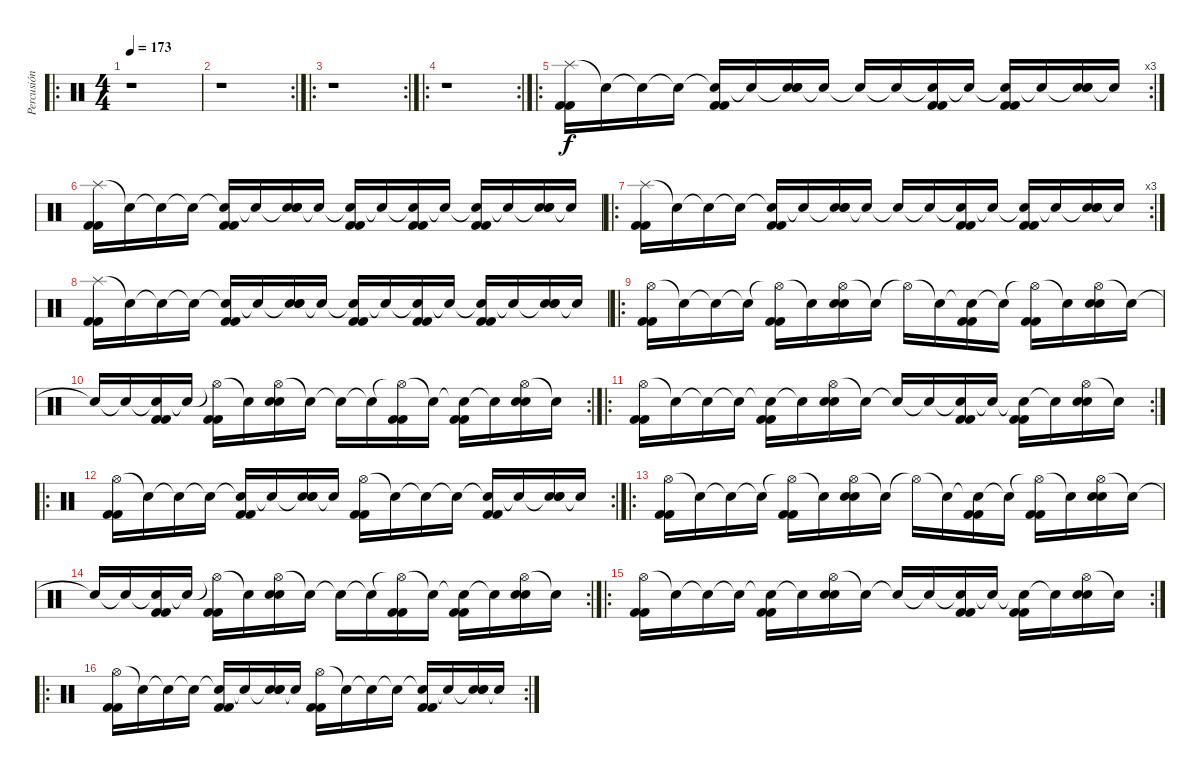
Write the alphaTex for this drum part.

\track ("Percusión" "Percusión") {instrument percussion}
\staff {score}
\articulation defaults
\ro
\ts (4 4)
\tempo 173
\clef neutral
\ks c
r.1{dy f} |
\rc 2
r.1 |
\ro
\rc 2
r.1 |
\ro
\rc 2
r.1 |
\ro
\rc 3
("Splash (hit)" "Kick (hit) 2" "Kick (hit) 2").16 "Snare (hit)"{t}.16 "Snare (hit)"{t}.16 "Snare (hit)"{t}.16 ("Snare (hit)"{t} "Kick (hit) 2" "Kick (hit) 2").16 "Snare (hit)"{t}.16 ("Snare (hit)"{t} "Electric Snare (hit)" "Electric Snare (hit)").16 "Snare (hit)"{t}.16 "Snare (hit)"{t}.16 "Snare (hit)"{t}.16 ("Snare (hit)"{t} "Kick (hit) 2" "Kick (hit) 2").16 "Snare (hit)"{t}.16 ("Snare (hit)"{t} "Kick (hit) 2" "Kick (hit) 2").16 "Snare (hit)"{t}.16 ("Snare (hit)"{t} "Electric Snare (hit)" "Electric Snare (hit)").16 "Snare (hit)"{t}.16 |
("Splash (hit)" "Kick (hit) 2" "Kick (hit) 2").16 "Snare (hit)"{t}.16 "Snare (hit)"{t}.16 "Snare (hit)"{t}.16 ("Snare (hit)"{t} "Kick (hit) 2" "Kick (hit) 2").16 "Snare (hit)"{t}.16 ("Snare (hit)"{t} "Electric Snare (hit)" "Electric Snare (hit)").16 "Snare (hit)"{t}.16 ("Snare (hit)"{t} "Kick (hit) 2" "Kick (hit) 2").16 "Snare (hit)"{t}.16 ("Snare (hit)"{t} "Kick (hit) 2" "Kick (hit) 2").16 "Snare (hit)"{t}.16 ("Snare (hit)"{t} "Kick (hit) 2" "Kick (hit) 2").16 "Snare (hit)"{t}.16 ("Snare (hit)"{t} "Electric Snare (hit)" "Electric Snare (hit)").16 "Snare (hit)"{t}.16 |
\ro
\rc 3
("Splash (hit)" "Kick (hit) 2" "Kick (hit) 2").16 "Snare (hit)"{t}.16 "Snare (hit)"{t}.16 "Snare (hit)"{t}.16 ("Snare (hit)"{t} "Kick (hit) 2" "Kick (hit) 2").16 "Snare (hit)"{t}.16 ("Snare (hit)"{t} "Electric Snare (hit)" "Electric Snare (hit)").16 "Snare (hit)"{t}.16 "Snare (hit)"{t}.16 "Snare (hit)"{t}.16 ("Snare (hit)"{t} "Kick (hit) 2" "Kick (hit) 2").16 "Snare (hit)"{t}.16 ("Snare (hit)"{t} "Kick (hit) 2" "Kick (hit) 2").16 "Snare (hit)"{t}.16 ("Snare (hit)"{t} "Electric Snare (hit)" "Electric Snare (hit)").16 "Snare (hit)"{t}.16 |
("Splash (hit)" "Kick (hit) 2" "Kick (hit) 2").16 "Snare (hit)"{t}.16 "Snare (hit)"{t}.16 "Snare (hit)"{t}.16 ("Snare (hit)"{t} "Kick (hit) 2" "Kick (hit) 2").16 "Snare (hit)"{t}.16 ("Snare (hit)"{t} "Electric Snare (hit)" "Electric Snare (hit)").16 "Snare (hit)"{t}.16 ("Snare (hit)"{t} "Kick (hit) 2" "Kick (hit) 2").16 "Snare (hit)"{t}.16 ("Snare (hit)"{t} "Kick (hit) 2" "Kick (hit) 2").16 "Snare (hit)"{t}.16 ("Snare (hit)"{t} "Kick (hit) 2" "Kick (hit) 2").16 "Snare (hit)"{t}.16 ("Snare (hit)"{t} "Electric Snare (hit)" "Electric Snare (hit)").16 "Snare (hit)"{t}.16 |
\ro
("Hi-Hat (open)" "Kick (hit) 2" "Kick (hit) 2").16 "Snare (hit)"{t}.16 "Snare (hit)"{t}.16 "Snare (hit)"{t}.16 ("Hi-Hat (open)"{t} "Kick (hit) 2" "Kick (hit) 2").16 "Snare (hit)"{t}.16 ("Hi-Hat (open)" "Electric Snare (hit)" "Electric Snare (hit)").16 "Snare (hit)"{t}.16 "Hi-Hat (open)"{t}.16 "Snare (hit)"{t}.16 ("Snare (hit)"{t} "Kick (hit) 2" "Kick (hit) 2").16 "Snare (hit)"{t}.16 ("Hi-Hat (open)"{t} "Kick (hit) 2" "Kick (hit) 2").16 "Snare (hit)"{t}.16 ("Hi-Hat (open)" "Electric Snare (hit)" "Electric Snare (hit)").16 "Snare (hit)"{t}.16 |
\rc 2 "Snare (hit)"{t}.16 "Snare (hit)"{t}.16
("Snare (hit)"{t} "Kick (hit) 2" "Kick (hit) 2").16 "Snare (hit)"{t}.16 ("Hi-Hat (open)"{t} "Kick (hit) 2" "Kick (hit) 2").16 "Snare (hit)"{t}.16 ("Hi-Hat (open)" "Electric Snare (hit)" "Electric Snare (hit)").16 "Snare (hit)"{t}.16 "Snare (hit)"{t}.16 "Snare (hit)"{t}.16 ("Hi-Hat (open)"{t} "Kick (hit) 2" "Kick (hit) 2").16 "Snare (hit)"{t}.16 ("Snare (hit)"{t} "Kick (hit) 2" "Kick (hit) 2").16 "Snare (hit)"{t}.16 ("Hi-Hat (open)" "Electric Snare (hit)" "Electric Snare (hit)").16 "Snare (hit)"{t}.16 |
\ro
\rc 2
("Hi-Hat (open)" "Kick (hit) 2" "Kick (hit) 2").16 "Snare (hit)"{t}.16 "Snare (hit)"{t}.16 "Snare (hit)"{t}.16 ("Snare (hit)"{t} "Kick (hit) 2" "Kick (hit) 2").16 "Snare (hit)"{t}.16 ("Hi-Hat (open)" "Electric Snare (hit)" "Electric Snare (hit)").16 "Snare (hit)"{t}.16 "Snare (hit)"{t}.16 "Snare (hit)"{t}.16 ("Snare (hit)"{t} "Kick (hit) 2" "Kick (hit) 2").16 "Snare (hit)"{t}.16 ("Snare (hit)"{t} "Kick (hit) 2" "Kick (hit) 2").16 "Snare (hit)"{t}.16 ("Hi-Hat (open)" "Electric Snare (hit)" "Electric Snare (hit)").16 "Snare (hit)"{t}.16 |
\ro
\rc 2
("Hi-Hat (open)" "Kick (hit) 2" "Kick (hit) 2").16 "Snare (hit)"{t}.16 "Snare (hit)"{t}.16 "Snare (hit)"{t}.16 ("Snare (hit)"{t} "Kick (hit) 2" "Kick (hit) 2").16 "Snare (hit)"{t}.16 ("Snare (hit)"{t} "Electric Snare (hit)" "Electric Snare (hit)").16 "Snare (hit)"{t}.16 ("Hi-Hat (open)" "Kick (hit) 2" "Kick (hit) 2").16 "Snare (hit)"{t}.16 "Snare (hit)"{t}.16 "Snare (hit)"{t}.16 ("Snare (hit)"{t} "Kick (hit) 2" "Kick (hit) 2").16 "Snare (hit)"{t}.16 ("Snare (hit)"{t} "Electric Snare (hit)" "Electric Snare (hit)").16 "Snare (hit)"{t}.16 |
\ro
("Hi-Hat (open)" "Kick (hit) 2" "Kick (hit) 2").16 "Snare (hit)"{t}.16 "Snare (hit)"{t}.16 "Snare (hit)"{t}.16 ("Hi-Hat (open)"{t} "Kick (hit) 2" "Kick (hit) 2").16 "Snare (hit)"{t}.16 ("Hi-Hat (open)" "Electric Snare (hit)" "Electric Snare (hit)").16 "Snare (hit)"{t}.16 "Hi-Hat (open)"{t}.16 "Snare (hit)"{t}.16 ("Snare (hit)"{t} "Kick (hit) 2" "Kick (hit) 2").16 "Snare (hit)"{t}.16 ("Hi-Hat (open)"{t} "Kick (hit) 2" "Kick (hit) 2").16 "Snare (hit)"{t}.16 ("Hi-Hat (open)" "Electric Snare (hit)" "Electric Snare (hit)").16 "Snare (hit)"{t}.16 |
\rc 2 "Snare (hit)"{t}.16 "Snare (hit)"{t}.16
("Snare (hit)"{t} "Kick (hit) 2" "Kick (hit) 2").16 "Snare (hit)"{t}.16 ("Hi-Hat (open)"{t} "Kick (hit) 2" "Kick (hit) 2").16 "Snare (hit)"{t}.16 ("Hi-Hat (open)" "Electric Snare (hit)" "Electric Snare (hit)").16 "Snare (hit)"{t}.16 "Snare (hit)"{t}.16 "Snare (hit)"{t}.16 ("Hi-Hat (open)"{t} "Kick (hit) 2" "Kick (hit) 2").16 "Snare (hit)"{t}.16 ("Snare (hit)"{t} "Kick (hit) 2" "Kick (hit) 2").16 "Snare (hit)"{t}.16 ("Hi-Hat (open)" "Electric Snare (hit)" "Electric Snare (hit)").16 "Snare (hit)"{t}.16 |
\ro
\rc 2
("Hi-Hat (open)" "Kick (hit) 2" "Kick (hit) 2").16 "Snare (hit)"{t}.16 "Snare (hit)"{t}.16 "Snare (hit)"{t}.16 ("Snare (hit)"{t} "Kick (hit) 2" "Kick (hit) 2").16 "Snare (hit)"{t}.16 ("Hi-Hat (open)" "Electric Snare (hit)" "Electric Snare (hit)").16 "Snare (hit)"{t}.16 "Snare (hit)"{t}.16 "Snare (hit)"{t}.16 ("Snare (hit)"{t} "Kick (hit) 2" "Kick (hit) 2").16 "Snare (hit)"{t}.16 ("Snare (hit)"{t} "Kick (hit) 2" "Kick (hit) 2").16 "Snare (hit)"{t}.16 ("Hi-Hat (open)" "Electric Snare (hit)" "Electric Snare (hit)").16 "Snare (hit)"{t}.16 |
\ro
\rc 2
("Hi-Hat (open)" "Kick (hit) 2" "Kick (hit) 2").16 "Snare (hit)"{t}.16 "Snare (hit)"{t}.16 "Snare (hit)"{t}.16 ("Snare (hit)"{t} "Kick (hit) 2" "Kick (hit) 2").16 "Snare (hit)"{t}.16 ("Snare (hit)"{t} "Electric Snare (hit)" "Electric Snare (hit)").16 "Snare (hit)"{t}.16 ("Hi-Hat (open)" "Kick (hit) 2" "Kick (hit) 2").16 "Snare (hit)"{t}.16 "Snare (hit)"{t}.16 "Snare (hit)"{t}.16 ("Snare (hit)"{t} "Kick (hit) 2" "Kick (hit) 2").16 "Snare (hit)"{t}.16 ("Snare (hit)"{t} "Electric Snare (hit)" "Electric Snare (hit)").16 "Snare (hit)"{t}.16
